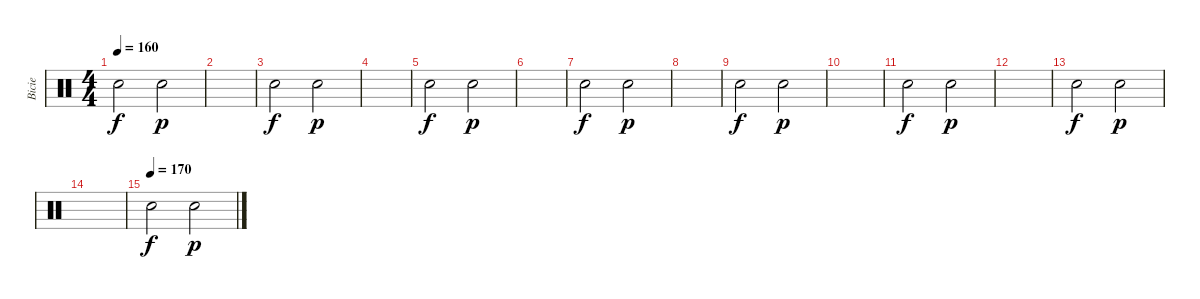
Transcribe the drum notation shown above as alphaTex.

\track ("Bicie" "Bicie") {instrument percussion}
\staff {score}
\articulation defaults
\ts (4 4)
\tempo 160
\clef neutral
\ks c "Snare (hit) 2".2{dy f} "Snare (hit) 2".2{dy p}
|
|
"Snare (hit) 2".2{dy f} "Snare (hit) 2".2{dy p} |
|
"Snare (hit) 2".2{dy f} "Snare (hit) 2".2{dy p} |
|
"Snare (hit) 2".2{dy f} "Snare (hit) 2".2{dy p} |
|
"Snare (hit) 2".2{dy f} "Snare (hit) 2".2{dy p} |
|
"Snare (hit) 2".2{dy f} "Snare (hit) 2".2{dy p} |
|
"Snare (hit) 2".2{dy f} "Snare (hit) 2".2{dy p} |
|
\tempo (170)
"Snare (hit) 2".2{dy f} "Snare (hit) 2".2{dy p}
